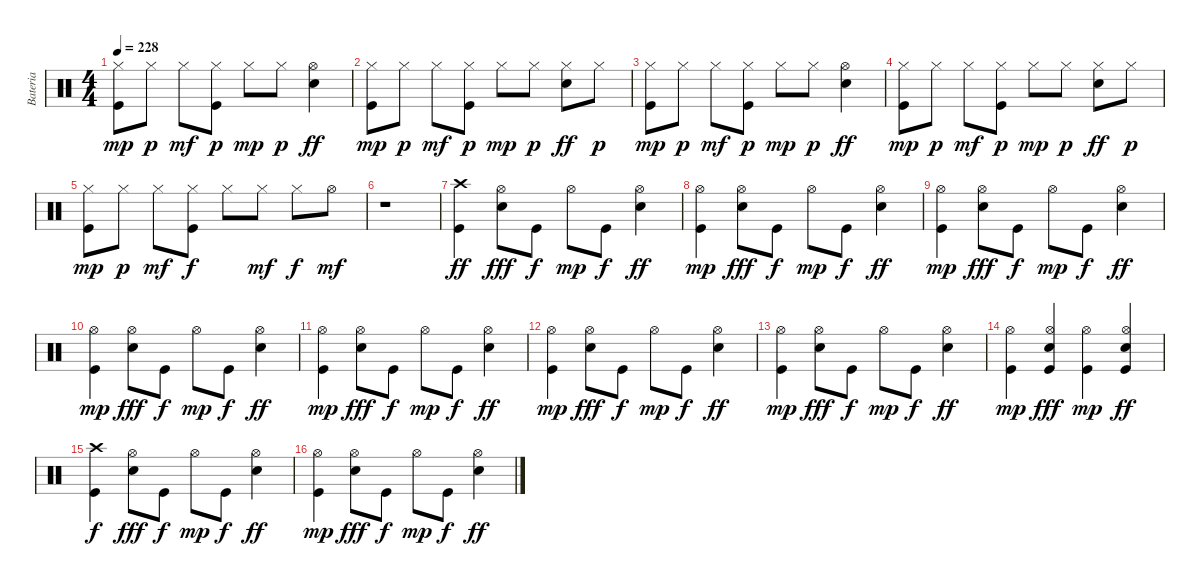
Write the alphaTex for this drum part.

\track ("Bateria" "Bateria") {instrument percussion}
\staff {score}
\articulation defaults
\ts (4 4)
\tempo 228
\clef neutral
\ks c
("Hi-Hat (closed)" "Kick (hit)").8{dy mp} "Hi-Hat (closed)".8{dy p} "Hi-Hat (closed)".8{dy mf} ("Hi-Hat (closed)" "Kick (hit)").8{dy p} "Hi-Hat (closed)".8{dy mp} "Hi-Hat (closed)".8{dy p} ("Hi-Hat (open)" "Electric Snare (hit)").4{dy ff} |
("Hi-Hat (closed)" "Kick (hit)").8{dy mp} "Hi-Hat (closed)".8{dy p} "Hi-Hat (closed)".8{dy mf} ("Hi-Hat (closed)" "Kick (hit)").8{dy p} "Hi-Hat (closed)".8{dy mp} "Hi-Hat (closed)".8{dy p} ("Hi-Hat (closed)" "Electric Snare (hit)").8{dy ff} "Hi-Hat (closed)".8{dy p} |
("Hi-Hat (closed)" "Kick (hit)").8{dy mp} "Hi-Hat (closed)".8{dy p} "Hi-Hat (closed)".8{dy mf} ("Hi-Hat (closed)" "Kick (hit)").8{dy p} "Hi-Hat (closed)".8{dy mp} "Hi-Hat (closed)".8{dy p} ("Hi-Hat (open)" "Electric Snare (hit)").4{dy ff} |
("Hi-Hat (closed)" "Kick (hit)").8{dy mp} "Hi-Hat (closed)".8{dy p} "Hi-Hat (closed)".8{dy mf} ("Hi-Hat (closed)" "Kick (hit)").8{dy p} "Hi-Hat (closed)".8{dy mp} "Hi-Hat (closed)".8{dy p} ("Hi-Hat (closed)" "Electric Snare (hit)").8{dy ff} "Hi-Hat (closed)".8{dy p} |
("Hi-Hat (closed)" "Kick (hit)").8{dy mp} "Hi-Hat (closed)".8{dy p} "Hi-Hat (closed)".8{dy mf} ("Hi-Hat (closed)" "Kick (hit)").8{dy f} "Hi-Hat (closed)".8 "Hi-Hat (closed)".8{dy mf} "Hi-Hat (closed)".8{dy f} "Hi-Hat (open)".8{dy mf} |
r.1 |
("Crash high (hit)" "Kick (hit)").4{dy ff} ("Hi-Hat (open)" "Electric Snare (hit)").8{dy fff} "Kick (hit)".8{dy f} "Hi-Hat (open)".8{dy mp} "Kick (hit)".8{dy f} ("Hi-Hat (open)" "Electric Snare (hit)").4{dy ff} |
("Hi-Hat (open)" "Kick (hit)").4{dy mp} ("Hi-Hat (open)" "Electric Snare (hit)").8{dy fff} "Kick (hit)".8{dy f} "Hi-Hat (open)".8{dy mp} "Kick (hit)".8{dy f} ("Hi-Hat (open)" "Electric Snare (hit)").4{dy ff} |
("Hi-Hat (open)" "Kick (hit)").4{dy mp} ("Hi-Hat (open)" "Electric Snare (hit)").8{dy fff} "Kick (hit)".8{dy f} "Hi-Hat (open)".8{dy mp} "Kick (hit)".8{dy f} ("Hi-Hat (open)" "Electric Snare (hit)").4{dy ff} |
("Hi-Hat (open)" "Kick (hit)").4{dy mp} ("Hi-Hat (open)" "Electric Snare (hit)").8{dy fff} "Kick (hit)".8{dy f} "Hi-Hat (open)".8{dy mp} "Kick (hit)".8{dy f} ("Hi-Hat (open)" "Electric Snare (hit)").4{dy ff} |
("Hi-Hat (open)" "Kick (hit)").4{dy mp} ("Hi-Hat (open)" "Electric Snare (hit)").8{dy fff} "Kick (hit)".8{dy f} "Hi-Hat (open)".8{dy mp} "Kick (hit)".8{dy f} ("Hi-Hat (open)" "Electric Snare (hit)").4{dy ff} |
("Hi-Hat (open)" "Kick (hit)").4{dy mp} ("Hi-Hat (open)" "Electric Snare (hit)").8{dy fff} "Kick (hit)".8{dy f} "Hi-Hat (open)".8{dy mp} "Kick (hit)".8{dy f} ("Hi-Hat (open)" "Electric Snare (hit)").4{dy ff} |
("Hi-Hat (open)" "Kick (hit)").4{dy mp} ("Hi-Hat (open)" "Electric Snare (hit)").8{dy fff} "Kick (hit)".8{dy f} "Hi-Hat (open)".8{dy mp} "Kick (hit)".8{dy f} ("Hi-Hat (open)" "Electric Snare (hit)").4{dy ff} |
("Hi-Hat (open)" "Kick (hit)").4{dy mp} ("Hi-Hat (open)" "Kick (hit)" "Electric Snare (hit)").4{dy fff} ("Hi-Hat (open)" "Kick (hit)").4{dy mp} ("Hi-Hat (open)" "Kick (hit)" "Electric Snare (hit)").4{dy ff} |
("Crash high (hit)" "Kick (hit)").4{dy f} ("Hi-Hat (open)" "Electric Snare (hit)").8{dy fff} "Kick (hit)".8{dy f} "Hi-Hat (open)".8{dy mp} "Kick (hit)".8{dy f} ("Hi-Hat (open)" "Electric Snare (hit)").4{dy ff} |
("Hi-Hat (open)" "Kick (hit)").4{dy mp} ("Hi-Hat (open)" "Electric Snare (hit)").8{dy fff} "Kick (hit)".8{dy f} "Hi-Hat (open)".8{dy mp} "Kick (hit)".8{dy f} ("Hi-Hat (open)" "Electric Snare (hit)").4{dy ff}
